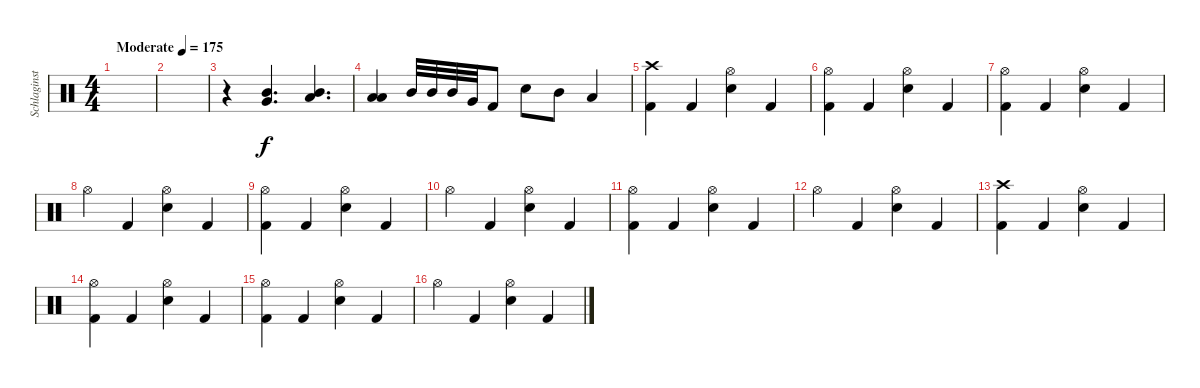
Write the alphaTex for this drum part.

\track ("Schlaginstrumente - Auswahl" "Schlaginst") {instrument percussion}
\staff {score}
\articulation defaults
\ts (4 4)
\tempo (175 "Moderate")
\clef neutral
\ks c
|
|
r.4 ("Mid Tom (hit)" "Very Low Tom (hit)").4{d} ("Mid Tom (hit)" "Low Tom (hit)").4{d} |
("Low Tom (hit)" "Low Floor Tom (hit)").4 "Mid Tom (hit)".32 "Mid Tom (hit)".32 "Mid Tom (hit)".32 "Very Low Tom (hit)".32 "Kick (hit) 2".8 "Electric Snare (hit)".8 "Mid Tom (hit)".8 "Low Tom (hit)".4 |
("Crash high (hit)" "Kick (hit) 2").4 "Kick (hit) 2".4 ("Hi-Hat (open)" "Electric Snare (hit)").4 "Kick (hit) 2".4 |
("Hi-Hat (open)" "Kick (hit) 2").4 "Kick (hit) 2".4 ("Hi-Hat (open)" "Electric Snare (hit)").4 "Kick (hit) 2".4 |
("Hi-Hat (open)" "Kick (hit) 2").4 "Kick (hit) 2".4 ("Hi-Hat (open)" "Electric Snare (hit)").4 "Kick (hit) 2".4 |
"Hi-Hat (open)".4 "Kick (hit) 2".4 ("Hi-Hat (open)" "Electric Snare (hit)").4 "Kick (hit) 2".4 |
("Hi-Hat (open)" "Kick (hit) 2").4 "Kick (hit) 2".4 ("Hi-Hat (open)" "Electric Snare (hit)").4 "Kick (hit) 2".4 |
"Hi-Hat (open)".4 "Kick (hit) 2".4 ("Hi-Hat (open)" "Electric Snare (hit)").4 "Kick (hit) 2".4 |
("Hi-Hat (open)" "Kick (hit) 2").4 "Kick (hit) 2".4 ("Hi-Hat (open)" "Electric Snare (hit)").4 "Kick (hit) 2".4 |
"Hi-Hat (open)".4 "Kick (hit) 2".4 ("Hi-Hat (open)" "Electric Snare (hit)").4 "Kick (hit) 2".4 |
("Crash high (hit)" "Kick (hit) 2").4 "Kick (hit) 2".4 ("Hi-Hat (open)" "Electric Snare (hit)").4 "Kick (hit) 2".4 |
("Hi-Hat (open)" "Kick (hit) 2").4 "Kick (hit) 2".4 ("Hi-Hat (open)" "Electric Snare (hit)").4 "Kick (hit) 2".4 |
("Hi-Hat (open)" "Kick (hit) 2").4 "Kick (hit) 2".4 ("Hi-Hat (open)" "Electric Snare (hit)").4 "Kick (hit) 2".4 |
"Hi-Hat (open)".4 "Kick (hit) 2".4 ("Hi-Hat (open)" "Electric Snare (hit)").4 "Kick (hit) 2".4
